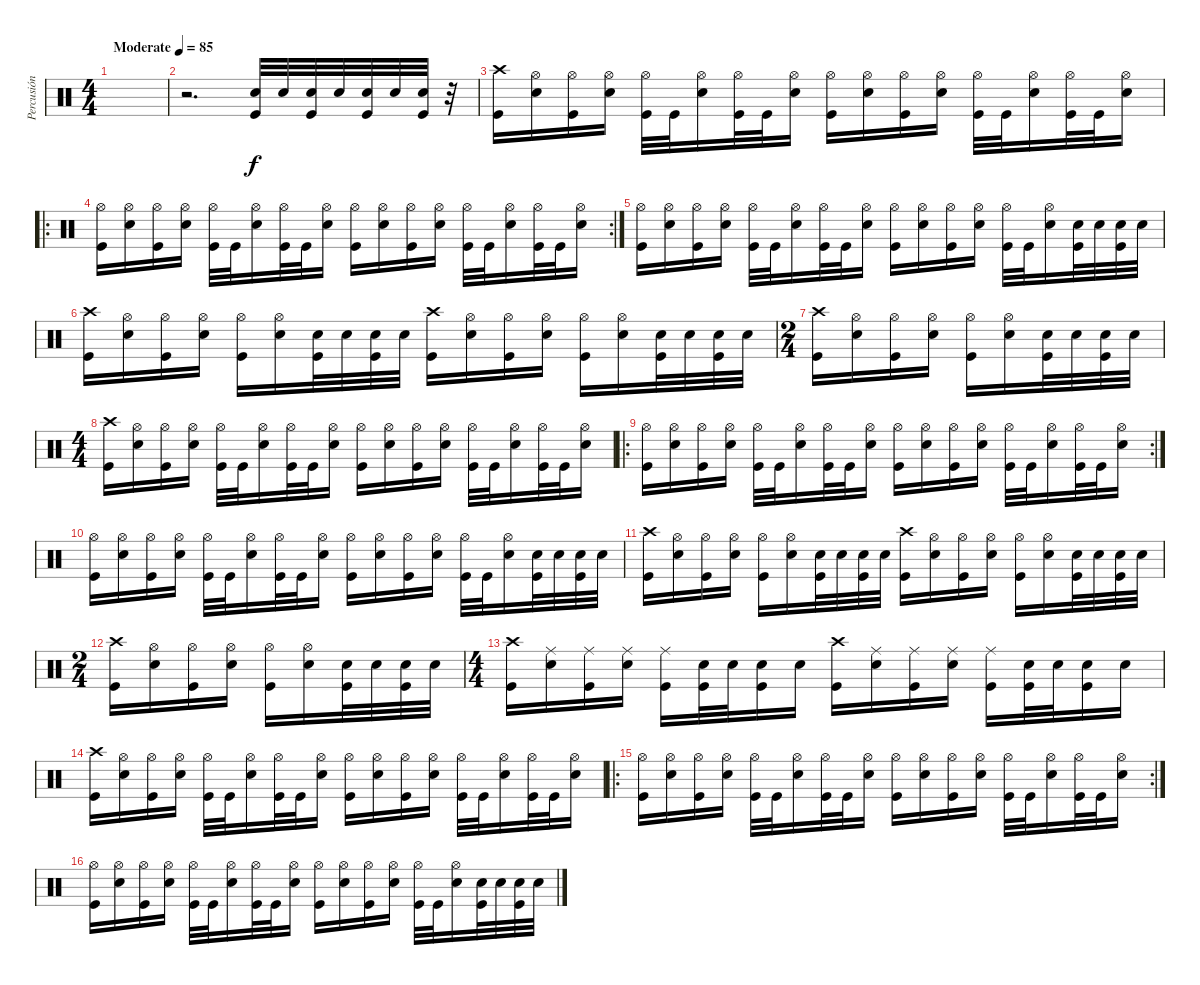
\track ("Percusión" "Percusión") {instrument percussion}
\staff {score}
\articulation defaults
\ts (4 4)
\tempo (85 "Moderate")
\clef neutral
\ks c
|
r.2{d} ("Electric Snare (hit)" "Kick (hit)").32 "Electric Snare (hit)".32 ("Electric Snare (hit)" "Kick (hit)").32 "Electric Snare (hit)".32 ("Electric Snare (hit)" "Kick (hit)").32 "Electric Snare (hit)".32 ("Electric Snare (hit)" "Kick (hit)").32 r.32 |
("Crash high (hit)" "Kick (hit)").16 ("Hi-Hat (open)" "Electric Snare (hit)").16 ("Hi-Hat (open)" "Kick (hit)").16 ("Hi-Hat (open)" "Electric Snare (hit)").16 ("Hi-Hat (open)" "Kick (hit)").32 "Kick (hit)".32 ("Hi-Hat (open)" "Electric Snare (hit)").16 ("Hi-Hat (open)" "Kick (hit)").32 "Kick (hit)".32 ("Hi-Hat (open)" "Electric Snare (hit)").16 ("Hi-Hat (open)" "Kick (hit)").16 ("Hi-Hat (open)" "Electric Snare (hit)").16 ("Hi-Hat (open)" "Kick (hit)").16 ("Hi-Hat (open)" "Electric Snare (hit)").16 ("Hi-Hat (open)" "Kick (hit)").32 "Kick (hit)".32 ("Hi-Hat (open)" "Electric Snare (hit)").16 ("Hi-Hat (open)" "Kick (hit)").32 "Kick (hit)".32 ("Hi-Hat (open)" "Electric Snare (hit)").16 |
\ro
\rc 2
("Hi-Hat (open)" "Kick (hit)").16 ("Hi-Hat (open)" "Electric Snare (hit)").16 ("Hi-Hat (open)" "Kick (hit)").16 ("Hi-Hat (open)" "Electric Snare (hit)").16 ("Hi-Hat (open)" "Kick (hit)").32 "Kick (hit)".32 ("Hi-Hat (open)" "Electric Snare (hit)").16 ("Hi-Hat (open)" "Kick (hit)").32 "Kick (hit)".32 ("Hi-Hat (open)" "Electric Snare (hit)").16 ("Hi-Hat (open)" "Kick (hit)").16 ("Hi-Hat (open)" "Electric Snare (hit)").16 ("Hi-Hat (open)" "Kick (hit)").16 ("Hi-Hat (open)" "Electric Snare (hit)").16 ("Hi-Hat (open)" "Kick (hit)").32 "Kick (hit)".32 ("Hi-Hat (open)" "Electric Snare (hit)").16 ("Hi-Hat (open)" "Kick (hit)").32 "Kick (hit)".32 ("Hi-Hat (open)" "Electric Snare (hit)").16 |
("Hi-Hat (open)" "Kick (hit)").16 ("Hi-Hat (open)" "Electric Snare (hit)").16 ("Hi-Hat (open)" "Kick (hit)").16 ("Hi-Hat (open)" "Electric Snare (hit)").16 ("Hi-Hat (open)" "Kick (hit)").32 "Kick (hit)".32 ("Hi-Hat (open)" "Electric Snare (hit)").16 ("Hi-Hat (open)" "Kick (hit)").32 "Kick (hit)".32 ("Hi-Hat (open)" "Electric Snare (hit)").16 ("Hi-Hat (open)" "Kick (hit)").16 ("Hi-Hat (open)" "Electric Snare (hit)").16 ("Hi-Hat (open)" "Kick (hit)").16 ("Hi-Hat (open)" "Electric Snare (hit)").16 ("Hi-Hat (open)" "Kick (hit)").32 "Kick (hit)".32 ("Hi-Hat (open)" "Electric Snare (hit)").16 ("Electric Snare (hit)" "Kick (hit)").32 "Electric Snare (hit)".32 ("Electric Snare (hit)" "Kick (hit)").32 "Electric Snare (hit)".32 |
("Crash high (hit)" "Kick (hit)").16 ("Hi-Hat (open)" "Electric Snare (hit)").16 ("Hi-Hat (open)" "Kick (hit)").16 ("Hi-Hat (open)" "Electric Snare (hit)").16 ("Hi-Hat (open)" "Kick (hit)").16 ("Hi-Hat (open)" "Electric Snare (hit)").16 ("Electric Snare (hit)" "Kick (hit)").32 "Electric Snare (hit)".32 ("Electric Snare (hit)" "Kick (hit)").32 "Electric Snare (hit)".32 ("Crash high (hit)" "Kick (hit)").16 ("Hi-Hat (open)" "Electric Snare (hit)").16 ("Hi-Hat (open)" "Kick (hit)").16 ("Hi-Hat (open)" "Electric Snare (hit)").16 ("Hi-Hat (open)" "Kick (hit)").16 ("Hi-Hat (open)" "Electric Snare (hit)").16 ("Electric Snare (hit)" "Kick (hit)").32 "Electric Snare (hit)".32 ("Electric Snare (hit)" "Kick (hit)").32 "Electric Snare (hit)".32 |
\ts (2 4)
("Crash high (hit)" "Kick (hit)").16 ("Hi-Hat (open)" "Electric Snare (hit)").16 ("Hi-Hat (open)" "Kick (hit)").16 ("Hi-Hat (open)" "Electric Snare (hit)").16 ("Hi-Hat (open)" "Kick (hit)").16 ("Hi-Hat (open)" "Electric Snare (hit)").16 ("Electric Snare (hit)" "Kick (hit)").32 "Electric Snare (hit)".32 ("Electric Snare (hit)" "Kick (hit)").32 "Electric Snare (hit)".32 |
\ts (4 4)
("Crash high (hit)" "Kick (hit)").16 ("Hi-Hat (open)" "Electric Snare (hit)").16 ("Hi-Hat (open)" "Kick (hit)").16 ("Hi-Hat (open)" "Electric Snare (hit)").16 ("Hi-Hat (open)" "Kick (hit)").32 "Kick (hit)".32 ("Hi-Hat (open)" "Electric Snare (hit)").16 ("Hi-Hat (open)" "Kick (hit)").32 "Kick (hit)".32 ("Hi-Hat (open)" "Electric Snare (hit)").16 ("Hi-Hat (open)" "Kick (hit)").16 ("Hi-Hat (open)" "Electric Snare (hit)").16 ("Hi-Hat (open)" "Kick (hit)").16 ("Hi-Hat (open)" "Electric Snare (hit)").16 ("Hi-Hat (open)" "Kick (hit)").32 "Kick (hit)".32 ("Hi-Hat (open)" "Electric Snare (hit)").16 ("Hi-Hat (open)" "Kick (hit)").32 "Kick (hit)".32 ("Hi-Hat (open)" "Electric Snare (hit)").16 |
\ro
\rc 2
("Hi-Hat (open)" "Kick (hit)").16 ("Hi-Hat (open)" "Electric Snare (hit)").16 ("Hi-Hat (open)" "Kick (hit)").16 ("Hi-Hat (open)" "Electric Snare (hit)").16 ("Hi-Hat (open)" "Kick (hit)").32 "Kick (hit)".32 ("Hi-Hat (open)" "Electric Snare (hit)").16 ("Hi-Hat (open)" "Kick (hit)").32 "Kick (hit)".32 ("Hi-Hat (open)" "Electric Snare (hit)").16 ("Hi-Hat (open)" "Kick (hit)").16 ("Hi-Hat (open)" "Electric Snare (hit)").16 ("Hi-Hat (open)" "Kick (hit)").16 ("Hi-Hat (open)" "Electric Snare (hit)").16 ("Hi-Hat (open)" "Kick (hit)").32 "Kick (hit)".32 ("Hi-Hat (open)" "Electric Snare (hit)").16 ("Hi-Hat (open)" "Kick (hit)").32 "Kick (hit)".32 ("Hi-Hat (open)" "Electric Snare (hit)").16 |
("Hi-Hat (open)" "Kick (hit)").16 ("Hi-Hat (open)" "Electric Snare (hit)").16 ("Hi-Hat (open)" "Kick (hit)").16 ("Hi-Hat (open)" "Electric Snare (hit)").16 ("Hi-Hat (open)" "Kick (hit)").32 "Kick (hit)".32 ("Hi-Hat (open)" "Electric Snare (hit)").16 ("Hi-Hat (open)" "Kick (hit)").32 "Kick (hit)".32 ("Hi-Hat (open)" "Electric Snare (hit)").16 ("Hi-Hat (open)" "Kick (hit)").16 ("Hi-Hat (open)" "Electric Snare (hit)").16 ("Hi-Hat (open)" "Kick (hit)").16 ("Hi-Hat (open)" "Electric Snare (hit)").16 ("Hi-Hat (open)" "Kick (hit)").32 "Kick (hit)".32 ("Hi-Hat (open)" "Electric Snare (hit)").16 ("Electric Snare (hit)" "Kick (hit)").32 "Electric Snare (hit)".32 ("Electric Snare (hit)" "Kick (hit)").32 "Electric Snare (hit)".32 |
("Crash high (hit)" "Kick (hit)").16 ("Hi-Hat (open)" "Electric Snare (hit)").16 ("Hi-Hat (open)" "Kick (hit)").16 ("Hi-Hat (open)" "Electric Snare (hit)").16 ("Hi-Hat (open)" "Kick (hit)").16 ("Hi-Hat (open)" "Electric Snare (hit)").16 ("Electric Snare (hit)" "Kick (hit)").32 "Electric Snare (hit)".32 ("Electric Snare (hit)" "Kick (hit)").32 "Electric Snare (hit)".32 ("Crash high (hit)" "Kick (hit)").16 ("Hi-Hat (open)" "Electric Snare (hit)").16 ("Hi-Hat (open)" "Kick (hit)").16 ("Hi-Hat (open)" "Electric Snare (hit)").16 ("Hi-Hat (open)" "Kick (hit)").16 ("Hi-Hat (open)" "Electric Snare (hit)").16 ("Electric Snare (hit)" "Kick (hit)").32 "Electric Snare (hit)".32 ("Electric Snare (hit)" "Kick (hit)").32 "Electric Snare (hit)".32 |
\ts (2 4)
("Crash high (hit)" "Kick (hit)").16 ("Hi-Hat (open)" "Electric Snare (hit)").16 ("Hi-Hat (open)" "Kick (hit)").16 ("Hi-Hat (open)" "Electric Snare (hit)").16 ("Hi-Hat (open)" "Kick (hit)").16 ("Hi-Hat (open)" "Electric Snare (hit)").16 ("Electric Snare (hit)" "Kick (hit)").32 "Electric Snare (hit)".32 ("Electric Snare (hit)" "Kick (hit)").32 "Electric Snare (hit)".32 |
\ts (4 4)
("Crash high (hit)" "Kick (hit)").16 ("Ride (middle)" "Electric Snare (hit)").16 ("Ride (middle)" "Kick (hit)").16 ("Ride (middle)" "Electric Snare (hit)").16 ("Ride (middle)" "Kick (hit)").16 ("Electric Snare (hit)" "Kick (hit)").32 "Electric Snare (hit)".32 ("Electric Snare (hit)" "Kick (hit)").16 "Electric Snare (hit)".16 ("Crash high (hit)" "Kick (hit)").16 ("Ride (middle)" "Electric Snare (hit)").16 ("Ride (middle)" "Kick (hit)").16 ("Ride (middle)" "Electric Snare (hit)").16 ("Ride (middle)" "Kick (hit)").16 ("Electric Snare (hit)" "Kick (hit)").32 "Electric Snare (hit)".32 ("Electric Snare (hit)" "Kick (hit)").16 "Electric Snare (hit)".16 |
("Crash high (hit)" "Kick (hit)").16 ("Hi-Hat (open)" "Electric Snare (hit)").16 ("Hi-Hat (open)" "Kick (hit)").16 ("Hi-Hat (open)" "Electric Snare (hit)").16 ("Hi-Hat (open)" "Kick (hit)").32 "Kick (hit)".32 ("Hi-Hat (open)" "Electric Snare (hit)").16 ("Hi-Hat (open)" "Kick (hit)").32 "Kick (hit)".32 ("Hi-Hat (open)" "Electric Snare (hit)").16 ("Hi-Hat (open)" "Kick (hit)").16 ("Hi-Hat (open)" "Electric Snare (hit)").16 ("Hi-Hat (open)" "Kick (hit)").16 ("Hi-Hat (open)" "Electric Snare (hit)").16 ("Hi-Hat (open)" "Kick (hit)").32 "Kick (hit)".32 ("Hi-Hat (open)" "Electric Snare (hit)").16 ("Hi-Hat (open)" "Kick (hit)").32 "Kick (hit)".32 ("Hi-Hat (open)" "Electric Snare (hit)").16 |
\ro
\rc 2
("Hi-Hat (open)" "Kick (hit)").16 ("Hi-Hat (open)" "Electric Snare (hit)").16 ("Hi-Hat (open)" "Kick (hit)").16 ("Hi-Hat (open)" "Electric Snare (hit)").16 ("Hi-Hat (open)" "Kick (hit)").32 "Kick (hit)".32 ("Hi-Hat (open)" "Electric Snare (hit)").16 ("Hi-Hat (open)" "Kick (hit)").32 "Kick (hit)".32 ("Hi-Hat (open)" "Electric Snare (hit)").16 ("Hi-Hat (open)" "Kick (hit)").16 ("Hi-Hat (open)" "Electric Snare (hit)").16 ("Hi-Hat (open)" "Kick (hit)").16 ("Hi-Hat (open)" "Electric Snare (hit)").16 ("Hi-Hat (open)" "Kick (hit)").32 "Kick (hit)".32 ("Hi-Hat (open)" "Electric Snare (hit)").16 ("Hi-Hat (open)" "Kick (hit)").32 "Kick (hit)".32 ("Hi-Hat (open)" "Electric Snare (hit)").16 |
("Hi-Hat (open)" "Kick (hit)").16 ("Hi-Hat (open)" "Electric Snare (hit)").16 ("Hi-Hat (open)" "Kick (hit)").16 ("Hi-Hat (open)" "Electric Snare (hit)").16 ("Hi-Hat (open)" "Kick (hit)").32 "Kick (hit)".32 ("Hi-Hat (open)" "Electric Snare (hit)").16 ("Hi-Hat (open)" "Kick (hit)").32 "Kick (hit)".32 ("Hi-Hat (open)" "Electric Snare (hit)").16 ("Hi-Hat (open)" "Kick (hit)").16 ("Hi-Hat (open)" "Electric Snare (hit)").16 ("Hi-Hat (open)" "Kick (hit)").16 ("Hi-Hat (open)" "Electric Snare (hit)").16 ("Hi-Hat (open)" "Kick (hit)").32 "Kick (hit)".32 ("Hi-Hat (open)" "Electric Snare (hit)").16 ("Electric Snare (hit)" "Kick (hit)").32 "Electric Snare (hit)".32 ("Electric Snare (hit)" "Kick (hit)").32 "Electric Snare (hit)".32
